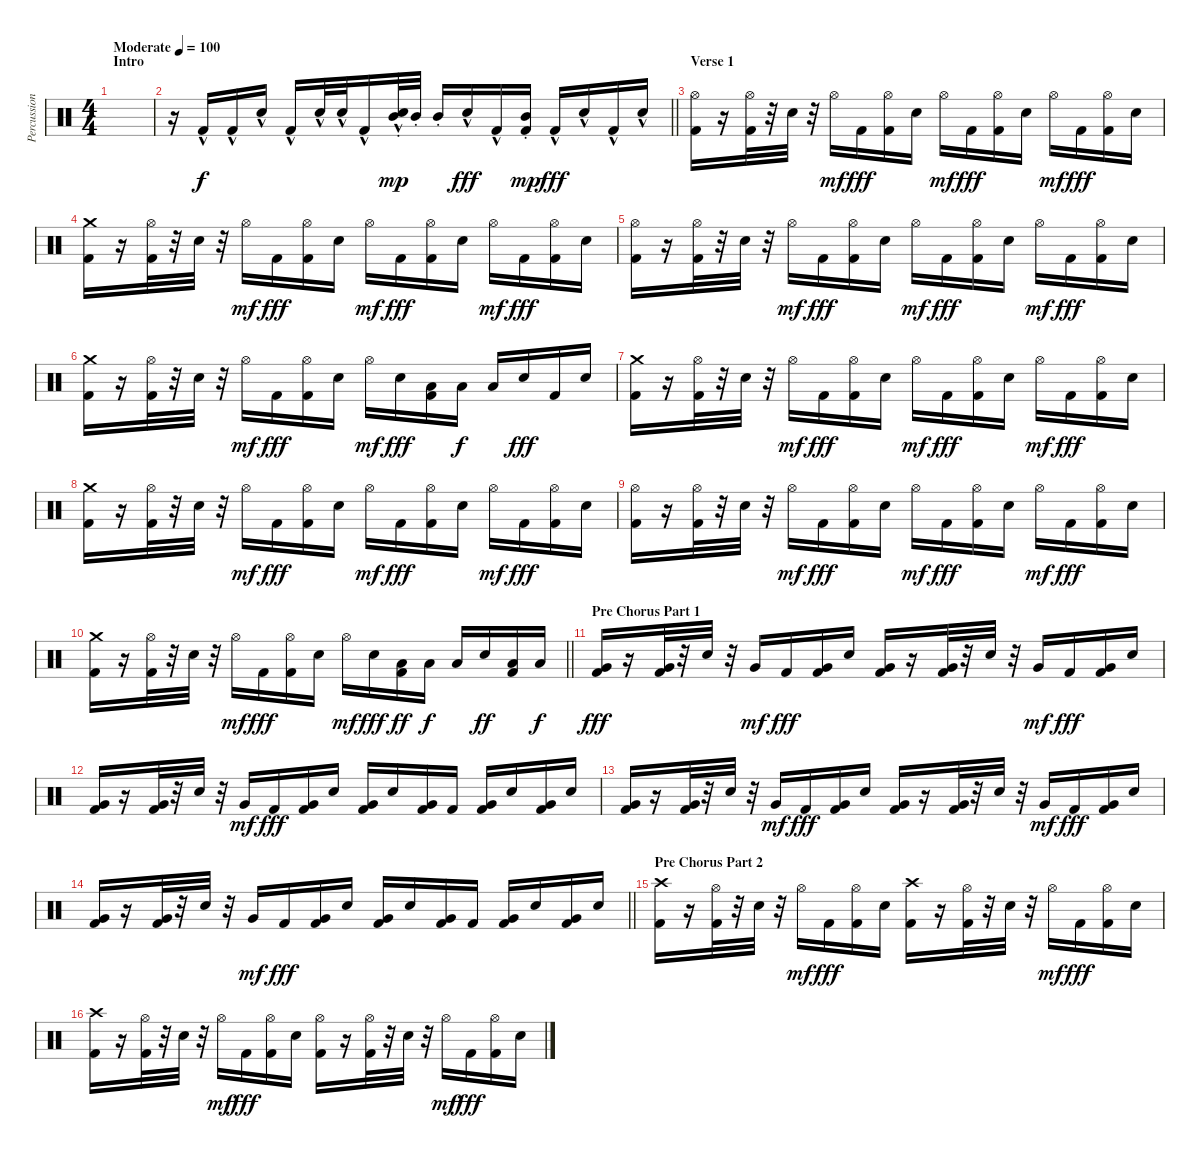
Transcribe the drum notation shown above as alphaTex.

\track ("Percussion" "Percussion") {instrument percussion}
\staff {score}
\articulation defaults
\ts (4 4)
\section ("" "Intro")
\tempo (100 "Moderate")
\clef neutral
\ks c
|
\barLineRight lightlight
r.16 "Kick (hit) 2"{hac}.16 "Kick (hit) 2"{hac}.16 "Electric Snare (hit)"{hac}.16 "Kick (hit) 2"{hac}.16 "Electric Snare (hit)"{hac}.32 "Electric Snare (hit)"{hac}.32 "Kick (hit) 2"{hac}.16 ("Electric Snare (hit)"{hac} "Mid Tom (hit)"{st}).32{dy mp} "Mid Tom (hit)"{st}.32 "Mid Tom (hit)"{st}.16 "Electric Snare (hit)"{hac}.16{dy fff} "Kick (hit) 2"{hac}.16 ("Mid Tom (hit)"{st} "Kick (hit) 2").16{dy mp} "Kick (hit) 2"{hac}.16{dy fff} "Electric Snare (hit)"{hac}.16 "Kick (hit) 2"{hac}.16 "Electric Snare (hit)"{hac}.16 |
\section ("" "Verse 1")
("Hi-Hat (open)" "Kick (hit) 2").16 r.16 ("Hi-Hat (open)" "Kick (hit) 2").32 r.32 "Electric Snare (hit)".32 r.32 "Hi-Hat (open)".16{dy mf} "Kick (hit) 2".16{dy fff} ("Hi-Hat (open)" "Kick (hit) 2").16 "Electric Snare (hit)".16 "Hi-Hat (open)".16{dy mf} "Kick (hit) 2".16{dy fff} ("Hi-Hat (open)" "Kick (hit) 2").16 "Electric Snare (hit)".16 "Hi-Hat (open)".16{dy mf} "Kick (hit) 2".16{dy fff} ("Hi-Hat (open)" "Kick (hit) 2").16 "Electric Snare (hit)".16 |
("Crash medium (hit)" "Kick (hit) 2").16 r.16 ("Hi-Hat (open)" "Kick (hit) 2").32 r.32 "Electric Snare (hit)".32 r.32 "Hi-Hat (open)".16{dy mf} "Kick (hit) 2".16{dy fff} ("Hi-Hat (open)" "Kick (hit) 2").16 "Electric Snare (hit)".16 "Hi-Hat (open)".16{dy mf} "Kick (hit) 2".16{dy fff} ("Hi-Hat (open)" "Kick (hit) 2").16 "Electric Snare (hit)".16 "Hi-Hat (open)".16{dy mf} "Kick (hit) 2".16{dy fff} ("Hi-Hat (open)" "Kick (hit) 2").16 "Electric Snare (hit)".16 |
("Hi-Hat (open)" "Kick (hit) 2").16 r.16 ("Hi-Hat (open)" "Kick (hit) 2").32 r.32 "Electric Snare (hit)".32 r.32 "Hi-Hat (open)".16{dy mf} "Kick (hit) 2".16{dy fff} ("Hi-Hat (open)" "Kick (hit) 2").16 "Electric Snare (hit)".16 "Hi-Hat (open)".16{dy mf} "Kick (hit) 2".16{dy fff} ("Hi-Hat (open)" "Kick (hit) 2").16 "Electric Snare (hit)".16 "Hi-Hat (open)".16{dy mf} "Kick (hit) 2".16{dy fff} ("Hi-Hat (open)" "Kick (hit) 2").16 "Electric Snare (hit)".16 |
("Crash medium (hit)" "Kick (hit) 2").16 r.16 ("Hi-Hat (open)" "Kick (hit) 2").32 r.32 "Electric Snare (hit)".32 r.32 "Hi-Hat (open)".16{dy mf} "Kick (hit) 2".16{dy fff} ("Hi-Hat (open)" "Kick (hit) 2").16 "Electric Snare (hit)".16 "Hi-Hat (open)".16{dy mf} "Electric Snare (hit)".16{dy fff} ("Low Floor Tom (hit)" "Kick (hit) 2").16 "Low Floor Tom (hit)".16{dy f} "Low Floor Tom (hit)".16 "Electric Snare (hit)".16{dy fff} "Kick (hit) 2".16 "Electric Snare (hit)".16 |
("Crash medium (hit)" "Kick (hit) 2").16 r.16 ("Hi-Hat (open)" "Kick (hit) 2").32 r.32 "Electric Snare (hit)".32 r.32 "Hi-Hat (open)".16{dy mf} "Kick (hit) 2".16{dy fff} ("Hi-Hat (open)" "Kick (hit) 2").16 "Electric Snare (hit)".16 "Hi-Hat (open)".16{dy mf} "Kick (hit) 2".16{dy fff} ("Hi-Hat (open)" "Kick (hit) 2").16 "Electric Snare (hit)".16 "Hi-Hat (open)".16{dy mf} "Kick (hit) 2".16{dy fff} ("Hi-Hat (open)" "Kick (hit) 2").16 "Electric Snare (hit)".16 |
("Crash medium (hit)" "Kick (hit) 2").16 r.16 ("Hi-Hat (open)" "Kick (hit) 2").32 r.32 "Electric Snare (hit)".32 r.32 "Hi-Hat (open)".16{dy mf} "Kick (hit) 2".16{dy fff} ("Hi-Hat (open)" "Kick (hit) 2").16 "Electric Snare (hit)".16 "Hi-Hat (open)".16{dy mf} "Kick (hit) 2".16{dy fff} ("Hi-Hat (open)" "Kick (hit) 2").16 "Electric Snare (hit)".16 "Hi-Hat (open)".16{dy mf} "Kick (hit) 2".16{dy fff} ("Hi-Hat (open)" "Kick (hit) 2").16 "Electric Snare (hit)".16 |
("Hi-Hat (open)" "Kick (hit) 2").16 r.16 ("Hi-Hat (open)" "Kick (hit) 2").32 r.32 "Electric Snare (hit)".32 r.32 "Hi-Hat (open)".16{dy mf} "Kick (hit) 2".16{dy fff} ("Hi-Hat (open)" "Kick (hit) 2").16 "Electric Snare (hit)".16 "Hi-Hat (open)".16{dy mf} "Kick (hit) 2".16{dy fff} ("Hi-Hat (open)" "Kick (hit) 2").16 "Electric Snare (hit)".16 "Hi-Hat (open)".16{dy mf} "Kick (hit) 2".16{dy fff} ("Hi-Hat (open)" "Kick (hit) 2").16 "Electric Snare (hit)".16 |
\barLineRight lightlight
("Crash medium (hit)" "Kick (hit) 2").16 r.16 ("Hi-Hat (open)" "Kick (hit) 2").32 r.32 "Electric Snare (hit)".32 r.32 "Hi-Hat (open)".16{dy mf} "Kick (hit) 2".16{dy fff} ("Hi-Hat (open)" "Kick (hit) 2").16 "Electric Snare (hit)".16 "Hi-Hat (open)".16{dy mf} "Electric Snare (hit)".16{dy fff} ("Low Floor Tom (hit)" "Kick (hit) 2").16{dy ff} "Low Floor Tom (hit)".16{dy f} "Low Floor Tom (hit)".16 "Electric Snare (hit)".16{dy ff} ("Low Floor Tom (hit)" "Kick (hit) 2").16 "Low Floor Tom (hit)".16{dy f} |
\section ("" "Pre Chorus Part 1")
("Very Low Tom (hit)" "Kick (hit) 2").16{dy fff} r.16 ("Very Low Tom (hit)" "Kick (hit) 2").32 r.32 "Electric Snare (hit)".32 r.32 "Very Low Tom (hit)".16{dy mf} "Kick (hit) 2".16{dy fff} ("Very Low Tom (hit)" "Kick (hit) 2").16 "Electric Snare (hit)".16 ("Very Low Tom (hit)" "Kick (hit) 2").16 r.16 ("Very Low Tom (hit)" "Kick (hit) 2").32 r.32 "Electric Snare (hit)".32 r.32 "Very Low Tom (hit)".16{dy mf} "Kick (hit) 2".16{dy fff} ("Very Low Tom (hit)" "Kick (hit) 2").16 "Electric Snare (hit)".16 |
("Very Low Tom (hit)" "Kick (hit) 2").16 r.16 ("Very Low Tom (hit)" "Kick (hit) 2").32 r.32 "Electric Snare (hit)".32 r.32 "Very Low Tom (hit)".16{dy mf} "Kick (hit) 2".16{dy fff} ("Very Low Tom (hit)" "Kick (hit) 2").16 "Electric Snare (hit)".16 ("Very Low Tom (hit)" "Kick (hit) 2").16 "Electric Snare (hit)".16 ("Very Low Tom (hit)" "Kick (hit) 2").16 "Kick (hit) 2".16 ("Very Low Tom (hit)" "Kick (hit) 2").16 "Electric Snare (hit)".16 ("Very Low Tom (hit)" "Kick (hit) 2").16 "Electric Snare (hit)".16 |
("Very Low Tom (hit)" "Kick (hit) 2").16 r.16 ("Very Low Tom (hit)" "Kick (hit) 2").32 r.32 "Electric Snare (hit)".32 r.32 "Very Low Tom (hit)".16{dy mf} "Kick (hit) 2".16{dy fff} ("Very Low Tom (hit)" "Kick (hit) 2").16 "Electric Snare (hit)".16 ("Very Low Tom (hit)" "Kick (hit) 2").16 r.16 ("Very Low Tom (hit)" "Kick (hit) 2").32 r.32 "Electric Snare (hit)".32 r.32 "Very Low Tom (hit)".16{dy mf} "Kick (hit) 2".16{dy fff} ("Very Low Tom (hit)" "Kick (hit) 2").16 "Electric Snare (hit)".16 |
\barLineRight lightlight
("Very Low Tom (hit)" "Kick (hit) 2").16 r.16 ("Very Low Tom (hit)" "Kick (hit) 2").32 r.32 "Electric Snare (hit)".32 r.32 "Very Low Tom (hit)".16{dy mf} "Kick (hit) 2".16{dy fff} ("Very Low Tom (hit)" "Kick (hit) 2").16 "Electric Snare (hit)".16 ("Very Low Tom (hit)" "Kick (hit) 2").16 "Electric Snare (hit)".16 ("Very Low Tom (hit)" "Kick (hit) 2").16 "Kick (hit) 2".16 ("Very Low Tom (hit)" "Kick (hit) 2").16 "Electric Snare (hit)".16 ("Very Low Tom (hit)" "Kick (hit) 2").16 "Electric Snare (hit)".16 |
\section ("" "Pre Chorus Part 2")
("Crash high (hit)" "Kick (hit) 2").16 r.16 ("Hi-Hat (open)" "Kick (hit) 2").32 r.32 "Electric Snare (hit)".32 r.32 "Hi-Hat (open)".16{dy mf} "Kick (hit) 2".16{dy fff} ("Hi-Hat (open)" "Kick (hit) 2").16 "Electric Snare (hit)".16 ("Crash high (hit)" "Kick (hit) 2").16 r.16 ("Hi-Hat (open)" "Kick (hit) 2").32 r.32 "Electric Snare (hit)".32 r.32 "Hi-Hat (open)".16{dy mf} "Kick (hit) 2".16{dy fff} ("Hi-Hat (open)" "Kick (hit) 2").16 "Electric Snare (hit)".16 |
("Crash high (hit)" "Kick (hit) 2").16 r.16 ("Hi-Hat (open)" "Kick (hit) 2").32 r.32 "Electric Snare (hit)".32 r.32 "Hi-Hat (open)".16{dy mf} "Kick (hit) 2".16{dy fff} ("Hi-Hat (open)" "Kick (hit) 2").16 "Electric Snare (hit)".16 ("Hi-Hat (open)" "Kick (hit) 2").16 r.16 ("Hi-Hat (open)" "Kick (hit) 2").32 r.32 "Electric Snare (hit)".32 r.32 "Hi-Hat (open)".16{dy mf} "Kick (hit) 2".16{dy fff} ("Hi-Hat (open)" "Kick (hit) 2").16 "Electric Snare (hit)".16
